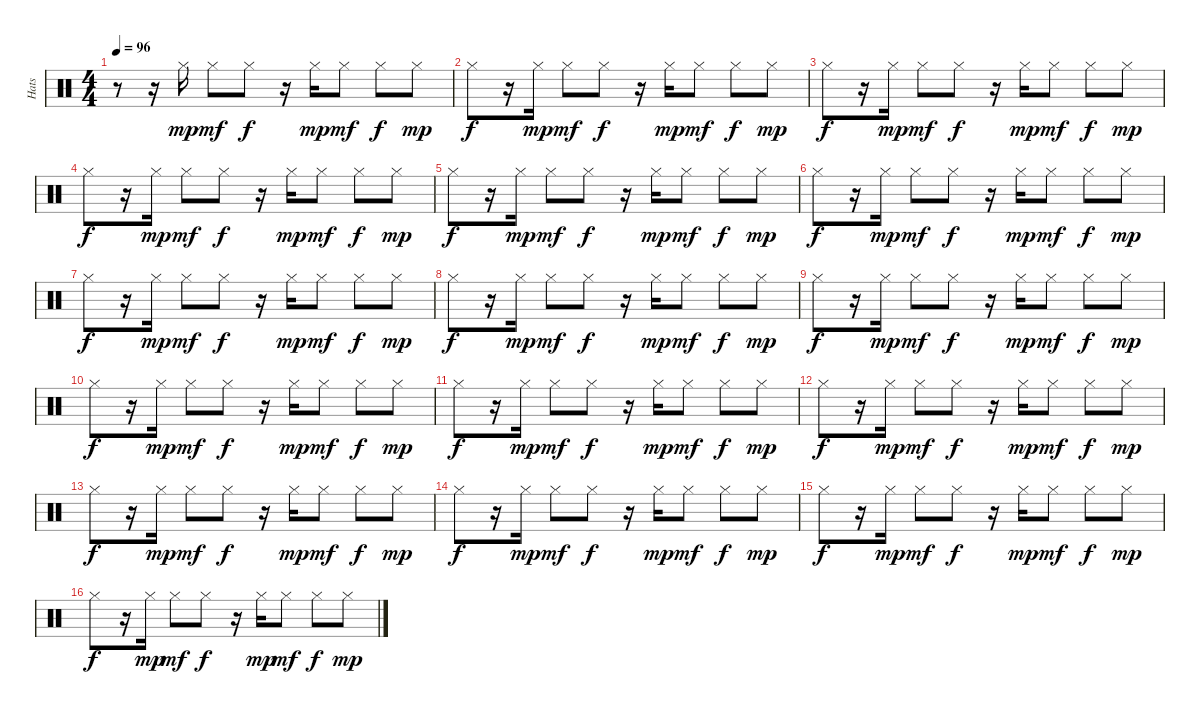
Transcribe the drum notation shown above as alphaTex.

\track ("Hats" "Hats") {instrument percussion}
\staff {score}
\articulation defaults
\ts (4 4)
\tempo 96
\clef neutral
\ks c
r.8{dy mp} r.16 "Hi-Hat (closed)".16 "Hi-Hat (closed)".8{dy mf} "Hi-Hat (closed)".8{dy f} r.16 "Hi-Hat (closed)".16{dy mp} "Hi-Hat (closed)".8{dy mf} "Hi-Hat (closed)".8{dy f} "Hi-Hat (closed)".8{dy mp} |
"Hi-Hat (closed)".8{dy f} r.16 "Hi-Hat (closed)".16{dy mp} "Hi-Hat (closed)".8{dy mf} "Hi-Hat (closed)".8{dy f} r.16 "Hi-Hat (closed)".16{dy mp} "Hi-Hat (closed)".8{dy mf} "Hi-Hat (closed)".8{dy f} "Hi-Hat (closed)".8{dy mp} |
"Hi-Hat (closed)".8{dy f} r.16 "Hi-Hat (closed)".16{dy mp} "Hi-Hat (closed)".8{dy mf} "Hi-Hat (closed)".8{dy f} r.16 "Hi-Hat (closed)".16{dy mp} "Hi-Hat (closed)".8{dy mf} "Hi-Hat (closed)".8{dy f} "Hi-Hat (closed)".8{dy mp} |
"Hi-Hat (closed)".8{dy f} r.16 "Hi-Hat (closed)".16{dy mp} "Hi-Hat (closed)".8{dy mf} "Hi-Hat (closed)".8{dy f} r.16 "Hi-Hat (closed)".16{dy mp} "Hi-Hat (closed)".8{dy mf} "Hi-Hat (closed)".8{dy f} "Hi-Hat (closed)".8{dy mp} |
"Hi-Hat (closed)".8{dy f} r.16 "Hi-Hat (closed)".16{dy mp} "Hi-Hat (closed)".8{dy mf} "Hi-Hat (closed)".8{dy f} r.16 "Hi-Hat (closed)".16{dy mp} "Hi-Hat (closed)".8{dy mf} "Hi-Hat (closed)".8{dy f} "Hi-Hat (closed)".8{dy mp} |
"Hi-Hat (closed)".8{dy f} r.16 "Hi-Hat (closed)".16{dy mp} "Hi-Hat (closed)".8{dy mf} "Hi-Hat (closed)".8{dy f} r.16 "Hi-Hat (closed)".16{dy mp} "Hi-Hat (closed)".8{dy mf} "Hi-Hat (closed)".8{dy f} "Hi-Hat (closed)".8{dy mp} |
"Hi-Hat (closed)".8{dy f} r.16 "Hi-Hat (closed)".16{dy mp} "Hi-Hat (closed)".8{dy mf} "Hi-Hat (closed)".8{dy f} r.16 "Hi-Hat (closed)".16{dy mp} "Hi-Hat (closed)".8{dy mf} "Hi-Hat (closed)".8{dy f} "Hi-Hat (closed)".8{dy mp} |
"Hi-Hat (closed)".8{dy f} r.16 "Hi-Hat (closed)".16{dy mp} "Hi-Hat (closed)".8{dy mf} "Hi-Hat (closed)".8{dy f} r.16 "Hi-Hat (closed)".16{dy mp} "Hi-Hat (closed)".8{dy mf} "Hi-Hat (closed)".8{dy f} "Hi-Hat (closed)".8{dy mp} |
"Hi-Hat (closed)".8{dy f} r.16 "Hi-Hat (closed)".16{dy mp} "Hi-Hat (closed)".8{dy mf} "Hi-Hat (closed)".8{dy f} r.16 "Hi-Hat (closed)".16{dy mp} "Hi-Hat (closed)".8{dy mf} "Hi-Hat (closed)".8{dy f} "Hi-Hat (closed)".8{dy mp} |
"Hi-Hat (closed)".8{dy f} r.16 "Hi-Hat (closed)".16{dy mp} "Hi-Hat (closed)".8{dy mf} "Hi-Hat (closed)".8{dy f} r.16 "Hi-Hat (closed)".16{dy mp} "Hi-Hat (closed)".8{dy mf} "Hi-Hat (closed)".8{dy f} "Hi-Hat (closed)".8{dy mp} |
"Hi-Hat (closed)".8{dy f} r.16 "Hi-Hat (closed)".16{dy mp} "Hi-Hat (closed)".8{dy mf} "Hi-Hat (closed)".8{dy f} r.16 "Hi-Hat (closed)".16{dy mp} "Hi-Hat (closed)".8{dy mf} "Hi-Hat (closed)".8{dy f} "Hi-Hat (closed)".8{dy mp} |
"Hi-Hat (closed)".8{dy f} r.16 "Hi-Hat (closed)".16{dy mp} "Hi-Hat (closed)".8{dy mf} "Hi-Hat (closed)".8{dy f} r.16 "Hi-Hat (closed)".16{dy mp} "Hi-Hat (closed)".8{dy mf} "Hi-Hat (closed)".8{dy f} "Hi-Hat (closed)".8{dy mp} |
"Hi-Hat (closed)".8{dy f} r.16 "Hi-Hat (closed)".16{dy mp} "Hi-Hat (closed)".8{dy mf} "Hi-Hat (closed)".8{dy f} r.16 "Hi-Hat (closed)".16{dy mp} "Hi-Hat (closed)".8{dy mf} "Hi-Hat (closed)".8{dy f} "Hi-Hat (closed)".8{dy mp} |
"Hi-Hat (closed)".8{dy f} r.16 "Hi-Hat (closed)".16{dy mp} "Hi-Hat (closed)".8{dy mf} "Hi-Hat (closed)".8{dy f} r.16 "Hi-Hat (closed)".16{dy mp} "Hi-Hat (closed)".8{dy mf} "Hi-Hat (closed)".8{dy f} "Hi-Hat (closed)".8{dy mp} |
"Hi-Hat (closed)".8{dy f} r.16 "Hi-Hat (closed)".16{dy mp} "Hi-Hat (closed)".8{dy mf} "Hi-Hat (closed)".8{dy f} r.16 "Hi-Hat (closed)".16{dy mp} "Hi-Hat (closed)".8{dy mf} "Hi-Hat (closed)".8{dy f} "Hi-Hat (closed)".8{dy mp} |
"Hi-Hat (closed)".8{dy f} r.16 "Hi-Hat (closed)".16{dy mp} "Hi-Hat (closed)".8{dy mf} "Hi-Hat (closed)".8{dy f} r.16 "Hi-Hat (closed)".16{dy mp} "Hi-Hat (closed)".8{dy mf} "Hi-Hat (closed)".8{dy f} "Hi-Hat (closed)".8{dy mp}
